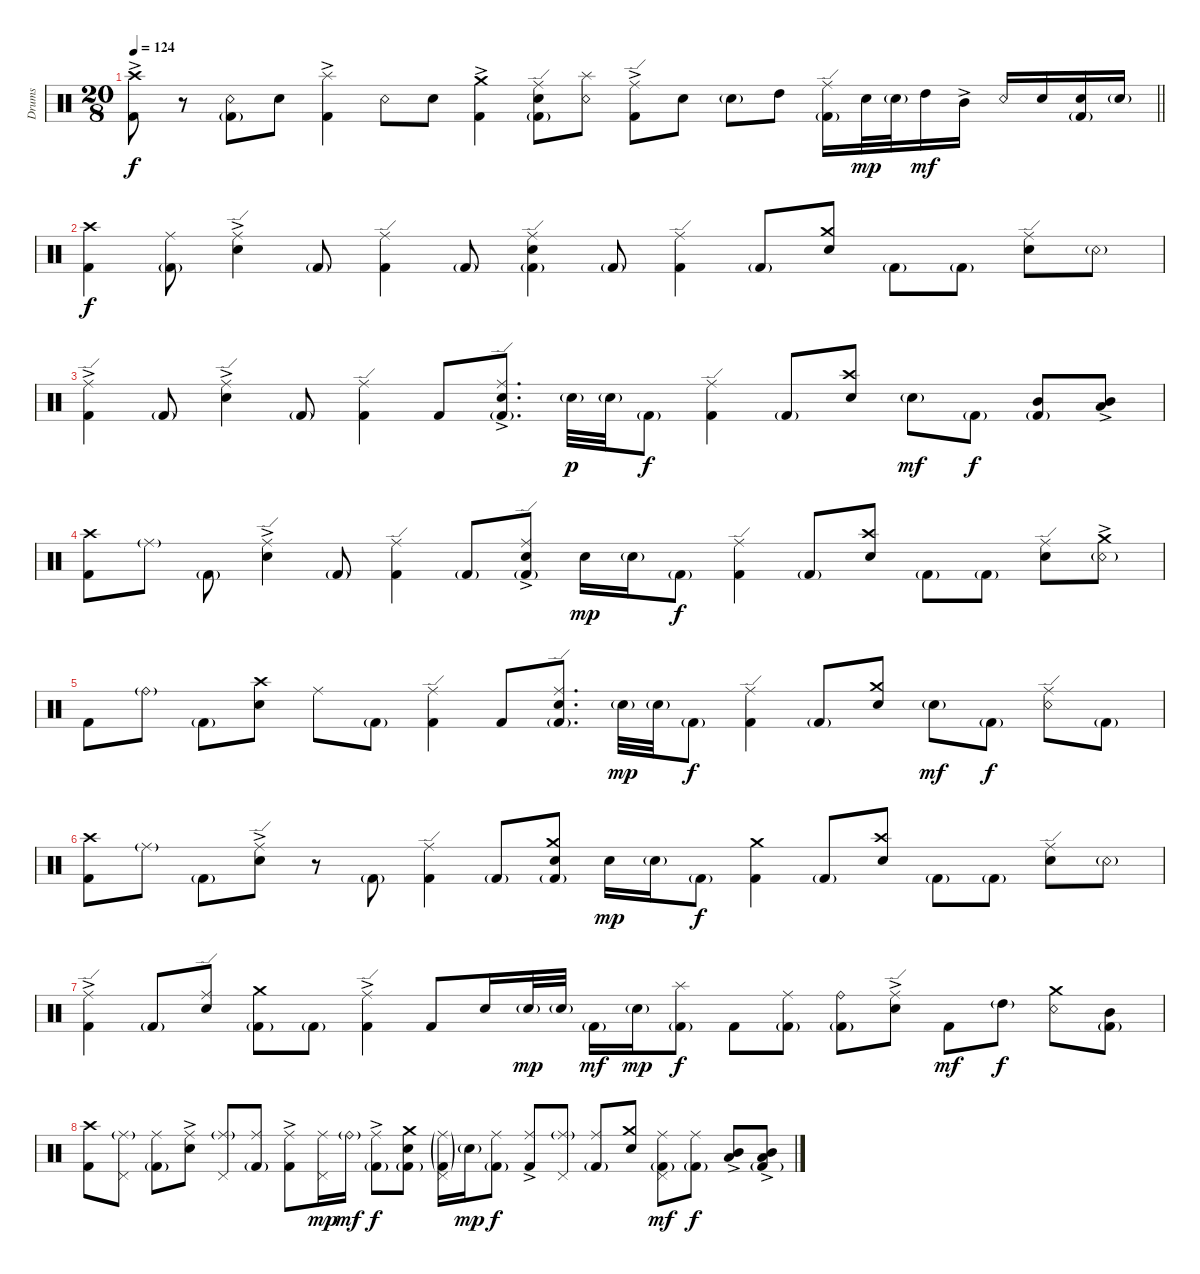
\bracketExtendMode groupsimilarinstruments
\otherSystemsTrackNameOrientation horizontal
\track ("Drumkit" "Drums") {instrument percussion}
\staff {score}
\articulation defaults
\ts (20 8)
\tempo 124
\clef neutral
\barLineRight lightlight
\ks c
("Kick (hit) 2" "Crash high (hit)"{ac}).8{dy f beam Down} r.8{beam Down} ("Snare (rim shot)" "Kick (hit) 2"{g}).8{beam Down} "Snare (hit) 2".8{beam Down} ("Kick (hit) 2" "Splash (hit)"{ac}).4{beam Down} "Snare (rim shot)".8{beam Down} "Snare (hit) 2".8{beam Down} ("Kick (hit) 2" "Crash medium (hit)"{ac}).4{beam Down} ("Kick (hit) 2"{g} "Snare (hit) 2" "Ride (edge)").8{beam Down} ("Snare (rim shot)" "Splash (hit)").8{beam Down} ("Kick (hit) 2" "Ride (edge)"{ac}).8{beam Down} "Snare (hit) 2".8{beam Down} "Snare (hit) 2"{g}.8{beam Down} "High Tom (hit)".8{beam Down} ("Kick (hit) 2"{g} "Ride (edge)").16{beam Down} "Snare (hit) 2".32{dy mp beam Down} "Snare (hit) 2"{g}.32{beam Down} "High Tom (hit)".16{dy mf beam Down} "Mid Tom (hit)"{ac}.16{beam Down} "Snare (rim shot)".16{beam Up} "Snare (hit) 2".16{beam Up} ("Snare (hit) 2" "Kick (hit) 2"{g}).16{beam Up} "Snare (hit) 2"{g}.16{beam Up} |
("Kick (hit) 2" "Crash high (hit)").4{dy f beam Down} ("Kick (hit) 2"{g} "Ride (middle)").8{beam Down} ("Snare (hit) 2" "Ride (edge)"{ac}).4{beam Down} "Kick (hit) 2"{g}.8{beam Up} ("Kick (hit) 2" "Ride (edge)").4{beam Down} "Kick (hit) 2"{g}.8{beam Up} ("Snare (hit) 2" "Ride (edge)" "Kick (hit) 2"{g}).4{beam Down} "Kick (hit) 2"{g}.8{beam Up} ("Kick (hit) 2" "Ride (edge)").4{beam Down} "Kick (hit) 2"{g}.8{beam Up} ("Snare (hit) 2" "Crash medium (hit)").8{beam Down} "Kick (hit) 2"{g}.8{beam Down} "Kick (hit) 2"{g}.8{beam Down} ("Snare (hit) 2" "Ride (edge)").8{beam Down} "Snare (rim shot)"{g}.8{beam Down} |
("Kick (hit) 2" "Ride (edge)"{ac}).4{beam Down} "Kick (hit) 2"{g}.8{beam Up} ("Snare (hit) 2" "Ride (edge)"{ac}).4{beam Down} "Kick (hit) 2"{g}.8{beam Up} ("Kick (hit) 2" "Ride (edge)").4{beam Down} "Kick (hit) 2".8{beam Up} ("Snare (hit) 2" "Ride (edge)"{ac} "Kick (hit) 2"{g}).8{d beam Down} "Snare (hit) 2"{g}.32{dy p beam Down} "Snare (hit) 2"{g}.32{beam Down} "Kick (hit) 2"{g}.8{dy f beam Down} ("Kick (hit) 2" "Ride (edge)").4{beam Down} "Kick (hit) 2"{g}.8{beam Up} ("Snare (hit) 2" "Crash high (hit)").8{beam Down} "Snare (hit) 2"{g}.8{dy mf beam Down} "Kick (hit) 2"{g}.8{dy f beam Down} ("Mid Tom (hit)" "Kick (hit) 2"{g}).8{beam Up} ("Mid Tom (hit)" "Low Tom (hit)"{ac}).8{beam Up} |
("Kick (hit) 2" "Crash high (hit)").8{beam Down} "Ride (middle)"{g}.8{beam Down} "Kick (hit) 2"{g}.8{beam Down} ("Snare (hit) 2" "Ride (edge)"{ac}).4{beam Down} "Kick (hit) 2"{g}.8{beam Up} ("Kick (hit) 2" "Ride (edge)").4{beam Down} "Kick (hit) 2"{g}.8{beam Up} ("Snare (hit) 2" "Ride (edge)"{ac} "Kick (hit) 2"{g}).8{beam Down} "Snare (hit) 2".16{dy mp beam Down} "Snare (hit) 2"{g}.16{beam Down} "Kick (hit) 2"{g}.8{dy f beam Down} ("Kick (hit) 2" "Ride (edge)").4{beam Down} "Kick (hit) 2"{g}.8{beam Up} ("Snare (hit) 2" "Crash high (hit)").8{beam Down} "Kick (hit) 2"{g}.8{beam Down} "Kick (hit) 2"{g}.8{beam Down} ("Snare (hit) 2" "Ride (edge)").8{beam Down} ("Snare (rim shot)"{g} "Crash medium (hit)"{ac}).8{beam Down} |
"Kick (hit) 2".8{beam Down} "Ride (bell)"{g}.8{beam Down} "Kick (hit) 2"{g}.8{beam Down} ("Snare (hit) 2" "Crash high (hit)").8{beam Down} "Ride (middle)".8{beam Down} "Kick (hit) 2"{g}.8{beam Down} ("Kick (hit) 2" "Ride (edge)").4{beam Down} "Kick (hit) 2".8{beam Up} ("Snare (hit) 2" "Ride (edge)" "Kick (hit) 2"{g}).8{d beam Down} "Snare (hit) 2"{g}.32{dy mp beam Down} "Snare (hit) 2"{g}.32{beam Down} "Kick (hit) 2"{g}.8{dy f beam Down} ("Kick (hit) 2" "Ride (edge)").4{beam Down} "Kick (hit) 2"{g}.8{beam Up} ("Snare (hit) 2" "Crash medium (hit)").8{beam Down} "Snare (hit) 2"{g}.8{dy mf beam Down} "Kick (hit) 2"{g}.8{dy f beam Down} ("Snare (rim shot)" "Ride (edge)").8{beam Down} "Kick (hit) 2"{g}.8{beam Down} |
("Kick (hit) 2" "Crash high (hit)").8{beam Down} "Ride (middle)"{g}.8{beam Down} "Kick (hit) 2"{g}.8{beam Down} ("Snare (hit) 2" "Ride (edge)"{ac}).8{beam Down} r.8{beam Down} "Kick (hit) 2"{g}.8{beam Down} ("Kick (hit) 2" "Ride (edge)").4{beam Down} "Kick (hit) 2"{g}.8{beam Up} ("Snare (hit) 2" "Crash medium (hit)" "Kick (hit) 2"{g}).8{beam Down} "Snare (hit) 2".16{dy mp beam Down} "Snare (hit) 2"{g}.16{beam Down} "Kick (hit) 2"{g}.8{dy f beam Down} ("Kick (hit) 2" "Crash medium (hit)").4{beam Down} "Kick (hit) 2"{g}.8{beam Up} ("Snare (hit) 2" "Crash high (hit)").8{beam Down} "Kick (hit) 2"{g}.8{beam Down} "Kick (hit) 2"{g}.8{beam Down} ("Snare (hit) 2" "Ride (edge)").8{beam Down} "Snare (rim shot)"{g}.8{beam Down} |
("Kick (hit) 2" "Ride (edge)"{ac}).4{beam Down} "Kick (hit) 2"{g}.8{beam Up} ("Snare (hit) 2" "Ride (edge)").8{beam Down} ("Kick (hit) 2"{g} "Crash medium (hit)").8{beam Down} "Kick (hit) 2"{g}.8{beam Down} ("Kick (hit) 2" "Ride (edge)"{ac}).4{beam Down} "Kick (hit) 2".8{beam Up} "Snare (hit) 2".16{beam Down} "Snare (hit) 2"{g}.32{dy mp beam Down} "Snare (hit) 2"{g}.32{beam Down} "Kick (hit) 2"{g}.16{dy mf beam Down} "Snare (hit) 2"{g}.16{dy mp beam Down} ("Kick (hit) 2"{g} "Splash (hit)").8{dy f beam Down} "Kick (hit) 2".8{beam Down} ("Ride (middle)" "Kick (hit) 2"{g}).8{beam Down} ("Ride (bell)" "Kick (hit) 2"{g}).8{beam Down} ("Ride (edge)"{ac} "Snare (hit) 2").8{beam Down} "Kick (hit) 2".8{dy mf beam Down} "High Tom (hit)"{g}.8{dy f beam Down} ("Snare (rim shot)" "Crash medium (hit)").8{beam Down} ("Kick (hit) 2"{g} "Mid Tom (hit)").8{beam Down} |
("Kick (hit) 2" "Crash high (hit)").8{beam Down} ("Ride (middle)"{g} "Pedal Hi-Hat (hit)").8{beam Down} ("Ride (middle)" "Kick (hit) 2"{g}).8{beam Down} ("Ride (middle)"{ac} "Snare (hit) 2").8{beam Up} ("Ride (middle)"{g} "Pedal Hi-Hat (hit)").8{beam Up} ("Ride (middle)" "Kick (hit) 2"{g}).8{beam Up} ("Ride (middle)"{ac} "Kick (hit) 2").8{beam Down} ("Ride (middle)" "Pedal Hi-Hat (hit)").16{dy mp beam Down} "Ride (bell)"{g}.16{dy mf beam Down} ("Ride (middle)"{ac} "Kick (hit) 2"{g}).8{dy f beam Down} ("Snare (hit) 2" "Crash medium (hit)" "Kick (hit) 2"{g}).8{beam Down} ("Ride (middle)"{g} "Kick (hit) 2"{g} "Pedal Hi-Hat (hit)").16{beam Down} "Snare (hit) 2"{g}.16{dy mp beam Down} ("Ride (middle)" "Kick (hit) 2"{g}).8{dy f beam Down} ("Kick (hit) 2" "Ride (middle)"{ac}).8{beam Up} ("Ride (middle)"{g} "Pedal Hi-Hat (hit)").8{beam Up} ("Ride (middle)" "Kick (hit) 2"{g}).8{beam Up} ("Snare (hit) 2" "Crash medium (hit)").8{beam Down} ("Ride (middle)" "Kick (hit) 2"{g} "Pedal Hi-Hat (hit)").8{dy mf beam Down} ("Ride (middle)" "Kick (hit) 2"{g}).8{dy f beam Down} ("Mid Tom (hit)"{ac} "Low Tom (hit)"{ac}).8{beam Up} ("Mid Tom (hit)" "Low Tom (hit)"{ac} "Kick (hit) 2"{g}).8{beam Up}
